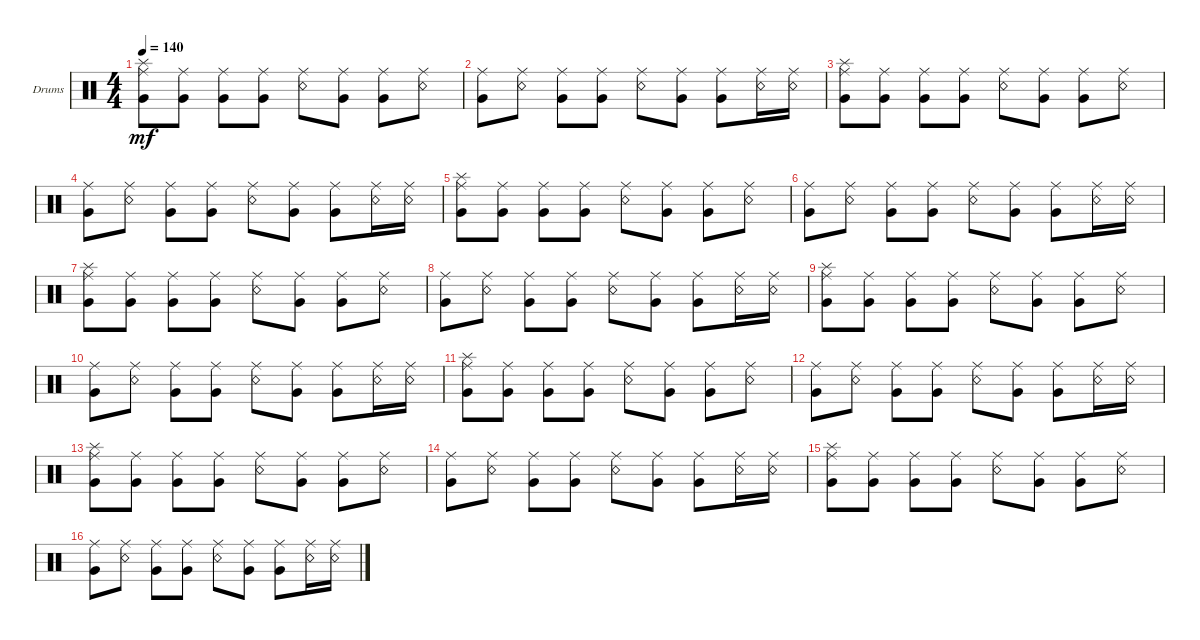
\defaultSystemsLayout 4
\bracketExtendMode groupsimilarinstruments
\firstSystemTrackNameOrientation horizontal
\otherSystemsTrackNameOrientation horizontal
\track ("Drumkit" "Drums") {instrument percussion}
\staff {score}
\articulation defaults
\ts (4 4)
\tempo 140
\clef neutral
\ks c
("Very Low Tom (hit)" "Ride (middle)" "Splash (hit)").8{dy mf} ("Very Low Tom (hit)" "Ride (middle)").8 ("Very Low Tom (hit)" "Ride (middle)").8 ("Very Low Tom (hit)" "Ride (middle)").8 ("Snare (rim shot)" "Ride (middle)").8 ("Very Low Tom (hit)" "Ride (middle)").8 ("Very Low Tom (hit)" "Ride (middle)").8 ("Snare (rim shot)" "Ride (middle)").8 |
("Very Low Tom (hit)" "Ride (middle)").8 ("Snare (rim shot)" "Ride (middle)").8 ("Very Low Tom (hit)" "Ride (middle)").8 ("Very Low Tom (hit)" "Ride (middle)").8 ("Snare (rim shot)" "Ride (middle)").8 ("Very Low Tom (hit)" "Ride (middle)").8 ("Very Low Tom (hit)" "Ride (middle)").8 ("Snare (rim shot)" "Ride (middle)").16 ("Snare (rim shot)" "Ride (middle)").16 |
("Very Low Tom (hit)" "Ride (middle)" "Splash (hit)").8 ("Very Low Tom (hit)" "Ride (middle)").8 ("Very Low Tom (hit)" "Ride (middle)").8 ("Very Low Tom (hit)" "Ride (middle)").8 ("Snare (rim shot)" "Ride (middle)").8 ("Very Low Tom (hit)" "Ride (middle)").8 ("Very Low Tom (hit)" "Ride (middle)").8 ("Snare (rim shot)" "Ride (middle)").8 |
("Very Low Tom (hit)" "Ride (middle)").8 ("Snare (rim shot)" "Ride (middle)").8 ("Very Low Tom (hit)" "Ride (middle)").8 ("Very Low Tom (hit)" "Ride (middle)").8 ("Snare (rim shot)" "Ride (middle)").8 ("Very Low Tom (hit)" "Ride (middle)").8 ("Very Low Tom (hit)" "Ride (middle)").8 ("Snare (rim shot)" "Ride (middle)").16 ("Snare (rim shot)" "Ride (middle)").16 |
("Very Low Tom (hit)" "Ride (middle)" "Splash (hit)").8 ("Very Low Tom (hit)" "Ride (middle)").8 ("Very Low Tom (hit)" "Ride (middle)").8 ("Very Low Tom (hit)" "Ride (middle)").8 ("Snare (rim shot)" "Ride (middle)").8 ("Very Low Tom (hit)" "Ride (middle)").8 ("Very Low Tom (hit)" "Ride (middle)").8 ("Snare (rim shot)" "Ride (middle)").8 |
("Very Low Tom (hit)" "Ride (middle)").8 ("Snare (rim shot)" "Ride (middle)").8 ("Very Low Tom (hit)" "Ride (middle)").8 ("Very Low Tom (hit)" "Ride (middle)").8 ("Snare (rim shot)" "Ride (middle)").8 ("Very Low Tom (hit)" "Ride (middle)").8 ("Very Low Tom (hit)" "Ride (middle)").8 ("Snare (rim shot)" "Ride (middle)").16 ("Snare (rim shot)" "Ride (middle)").16 |
("Very Low Tom (hit)" "Ride (middle)" "Splash (hit)").8 ("Very Low Tom (hit)" "Ride (middle)").8 ("Very Low Tom (hit)" "Ride (middle)").8 ("Very Low Tom (hit)" "Ride (middle)").8 ("Snare (rim shot)" "Ride (middle)").8 ("Very Low Tom (hit)" "Ride (middle)").8 ("Very Low Tom (hit)" "Ride (middle)").8 ("Snare (rim shot)" "Ride (middle)").8 |
("Very Low Tom (hit)" "Ride (middle)").8 ("Snare (rim shot)" "Ride (middle)").8 ("Very Low Tom (hit)" "Ride (middle)").8 ("Very Low Tom (hit)" "Ride (middle)").8 ("Snare (rim shot)" "Ride (middle)").8 ("Very Low Tom (hit)" "Ride (middle)").8 ("Very Low Tom (hit)" "Ride (middle)").8 ("Snare (rim shot)" "Ride (middle)").16 ("Snare (rim shot)" "Ride (middle)").16 |
("Very Low Tom (hit)" "Ride (middle)" "Splash (hit)").8 ("Very Low Tom (hit)" "Ride (middle)").8 ("Very Low Tom (hit)" "Ride (middle)").8 ("Very Low Tom (hit)" "Ride (middle)").8 ("Snare (rim shot)" "Ride (middle)").8 ("Very Low Tom (hit)" "Ride (middle)").8 ("Very Low Tom (hit)" "Ride (middle)").8 ("Snare (rim shot)" "Ride (middle)").8 |
("Very Low Tom (hit)" "Ride (middle)").8 ("Snare (rim shot)" "Ride (middle)").8 ("Very Low Tom (hit)" "Ride (middle)").8 ("Very Low Tom (hit)" "Ride (middle)").8 ("Snare (rim shot)" "Ride (middle)").8 ("Very Low Tom (hit)" "Ride (middle)").8 ("Very Low Tom (hit)" "Ride (middle)").8 ("Snare (rim shot)" "Ride (middle)").16 ("Snare (rim shot)" "Ride (middle)").16 |
("Very Low Tom (hit)" "Ride (middle)" "Splash (hit)").8 ("Very Low Tom (hit)" "Ride (middle)").8 ("Very Low Tom (hit)" "Ride (middle)").8 ("Very Low Tom (hit)" "Ride (middle)").8 ("Snare (rim shot)" "Ride (middle)").8 ("Very Low Tom (hit)" "Ride (middle)").8 ("Very Low Tom (hit)" "Ride (middle)").8 ("Snare (rim shot)" "Ride (middle)").8 |
("Very Low Tom (hit)" "Ride (middle)").8 ("Snare (rim shot)" "Ride (middle)").8 ("Very Low Tom (hit)" "Ride (middle)").8 ("Very Low Tom (hit)" "Ride (middle)").8 ("Snare (rim shot)" "Ride (middle)").8 ("Very Low Tom (hit)" "Ride (middle)").8 ("Very Low Tom (hit)" "Ride (middle)").8 ("Snare (rim shot)" "Ride (middle)").16 ("Snare (rim shot)" "Ride (middle)").16 |
("Very Low Tom (hit)" "Ride (middle)" "Splash (hit)").8 ("Very Low Tom (hit)" "Ride (middle)").8 ("Very Low Tom (hit)" "Ride (middle)").8 ("Very Low Tom (hit)" "Ride (middle)").8 ("Snare (rim shot)" "Ride (middle)").8 ("Very Low Tom (hit)" "Ride (middle)").8 ("Very Low Tom (hit)" "Ride (middle)").8 ("Snare (rim shot)" "Ride (middle)").8 |
("Very Low Tom (hit)" "Ride (middle)").8 ("Snare (rim shot)" "Ride (middle)").8 ("Very Low Tom (hit)" "Ride (middle)").8 ("Very Low Tom (hit)" "Ride (middle)").8 ("Snare (rim shot)" "Ride (middle)").8 ("Very Low Tom (hit)" "Ride (middle)").8 ("Very Low Tom (hit)" "Ride (middle)").8 ("Snare (rim shot)" "Ride (middle)").16 ("Snare (rim shot)" "Ride (middle)").16 |
("Very Low Tom (hit)" "Ride (middle)" "Splash (hit)").8 ("Very Low Tom (hit)" "Ride (middle)").8 ("Very Low Tom (hit)" "Ride (middle)").8 ("Very Low Tom (hit)" "Ride (middle)").8 ("Snare (rim shot)" "Ride (middle)").8 ("Very Low Tom (hit)" "Ride (middle)").8 ("Very Low Tom (hit)" "Ride (middle)").8 ("Snare (rim shot)" "Ride (middle)").8 |
("Very Low Tom (hit)" "Ride (middle)").8 ("Snare (rim shot)" "Ride (middle)").8 ("Very Low Tom (hit)" "Ride (middle)").8 ("Very Low Tom (hit)" "Ride (middle)").8 ("Snare (rim shot)" "Ride (middle)").8 ("Very Low Tom (hit)" "Ride (middle)").8 ("Very Low Tom (hit)" "Ride (middle)").8 ("Snare (rim shot)" "Ride (middle)").16 ("Snare (rim shot)" "Ride (middle)").16
